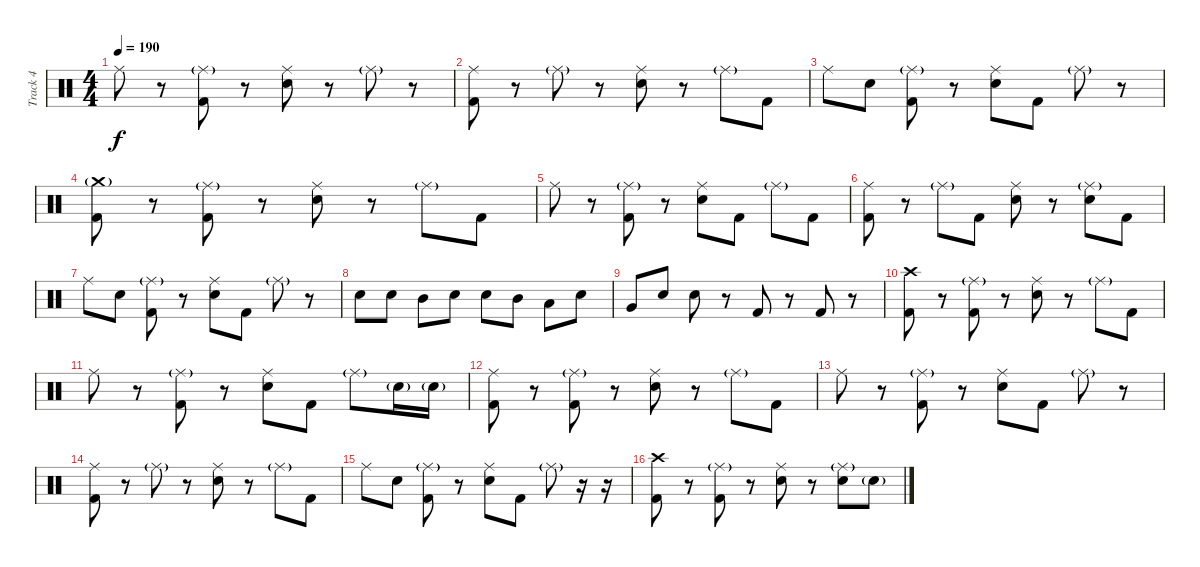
\track ("Track 4" "Track 4") {instrument percussion}
\staff {score}
\articulation defaults
\ts (4 4)
\tempo 190
\clef neutral
\ks c "Ride (middle)".8{dy f}
r.8 ("Ride (middle)"{g} "Kick (hit) 2").8 r.8 ("Ride (middle)" "Electric Snare (hit)").8 r.8 "Ride (middle)"{g}.8 r.8 |
("Ride (middle)" "Kick (hit) 2").8 r.8 "Ride (middle)"{g}.8 r.8 ("Ride (middle)" "Electric Snare (hit)").8 r.8 "Ride (middle)"{g}.8 "Kick (hit) 2".8 |
"Ride (middle)".8 "Electric Snare (hit)".8 ("Ride (middle)"{g} "Kick (hit) 2").8 r.8 ("Ride (middle)" "Electric Snare (hit)").8 "Kick (hit) 2".8 "Ride (middle)"{g}.8 r.8 |
("Crash medium (hit)"{g} "Kick (hit) 2").8 r.8 ("Ride (middle)"{g} "Kick (hit) 2").8 r.8 ("Ride (middle)" "Electric Snare (hit)").8 r.8 "Ride (middle)"{g}.8 "Kick (hit) 2".8 |
"Ride (middle)".8 r.8 ("Ride (middle)"{g} "Kick (hit) 2").8 r.8 ("Ride (middle)" "Electric Snare (hit)").8 "Kick (hit) 2".8 "Ride (middle)"{g}.8 "Kick (hit) 2".8 |
("Ride (middle)" "Kick (hit) 2").8 r.8 "Ride (middle)"{g}.8 "Kick (hit) 2".8 ("Ride (middle)" "Electric Snare (hit)").8 r.8 ("Ride (middle)"{g} "Electric Snare (hit)").8 "Kick (hit) 2".8 |
"Ride (middle)".8 "Electric Snare (hit)".8 ("Ride (middle)"{g} "Kick (hit) 2").8 r.8 ("Ride (middle)" "Electric Snare (hit)").8 "Kick (hit) 2".8 "Ride (middle)"{g}.8 r.8 |
"Electric Snare (hit)".8 "Electric Snare (hit)".8 "Mid Tom (hit)".8 "Electric Snare (hit)".8 "Electric Snare (hit)".8 "Mid Tom (hit)".8 "Low Tom (hit)".8 "Electric Snare (hit)".8 |
"Very Low Tom (hit)".8 "Electric Snare (hit)".8 "Electric Snare (hit)".8 r.8 "Kick (hit) 2".8 r.8 "Kick (hit) 2".8 r.8 |
("Crash high (hit)" "Kick (hit) 2").8 r.8 ("Ride (middle)"{g} "Kick (hit) 2").8 r.8 ("Ride (middle)" "Electric Snare (hit)").8 r.8 "Ride (middle)"{g}.8 "Kick (hit) 2".8 |
"Ride (middle)".8 r.8 ("Ride (middle)"{g} "Kick (hit) 2").8 r.8 ("Ride (middle)" "Electric Snare (hit)").8 "Kick (hit) 2".8 "Ride (middle)"{g}.8 "Electric Snare (hit)"{g}.16 "Electric Snare (hit)"{g}.16 |
("Ride (middle)" "Kick (hit) 2").8 r.8 ("Ride (middle)"{g} "Kick (hit) 2").8 r.8 ("Ride (middle)" "Electric Snare (hit)").8 r.8 "Ride (middle)"{g}.8 "Kick (hit) 2".8 |
"Ride (middle)".8 r.8 ("Ride (middle)"{g} "Kick (hit) 2").8 r.8 ("Ride (middle)" "Electric Snare (hit)").8 "Kick (hit) 2".8 "Ride (middle)"{g}.8 r.8 |
("Ride (middle)" "Kick (hit) 2").8 r.8 "Ride (middle)"{g}.8 r.8 ("Ride (middle)" "Electric Snare (hit)").8 r.8 "Ride (middle)"{g}.8 "Kick (hit) 2".8 |
"Ride (middle)".8 "Electric Snare (hit)".8 ("Ride (middle)"{g} "Kick (hit) 2").8 r.8 ("Ride (middle)" "Electric Snare (hit)").8 "Kick (hit) 2".8 "Ride (middle)"{g}.8 r.16 r.16 |
("Crash high (hit)" "Kick (hit) 2").8 r.8 ("Ride (middle)"{g} "Kick (hit) 2").8 r.8 ("Ride (middle)" "Electric Snare (hit)").8 r.8 ("Ride (middle)"{g} "Electric Snare (hit)").8 "Electric Snare (hit)"{g}.8
